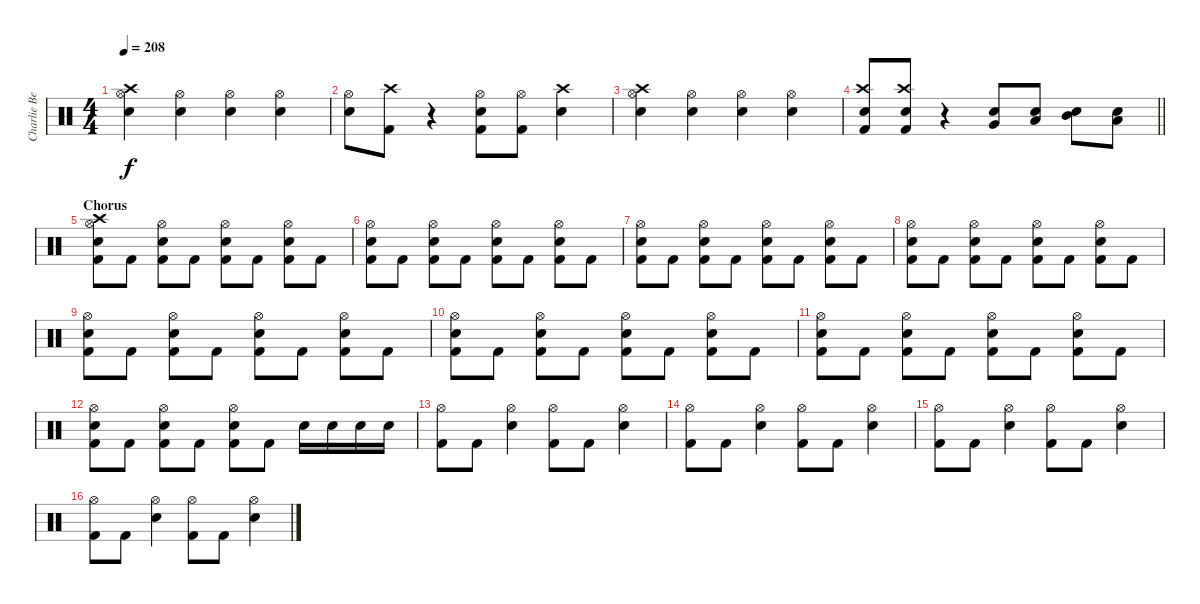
\track ("Charlie Benate" "Charlie Be") {instrument percussion}
\staff {score}
\articulation defaults
\ts (4 4)
\tempo 208
\clef neutral
\ks c
("Hi-Hat (open)" "Electric Snare (hit)" "Crash high (hit)").4{dy f} ("Hi-Hat (open)" "Electric Snare (hit)").4 ("Hi-Hat (open)" "Electric Snare (hit)").4 ("Hi-Hat (open)" "Electric Snare (hit)").4 |
("Hi-Hat (open)" "Electric Snare (hit)").8 ("Crash high (hit)" "Kick (hit) 2").8 r.4 ("Hi-Hat (open)" "Electric Snare (hit)" "Kick (hit) 2").8 ("Hi-Hat (open)" "Kick (hit) 2").8 ("Crash high (hit)" "Electric Snare (hit)").4 |
("Hi-Hat (open)" "Electric Snare (hit)" "Crash high (hit)").4 ("Hi-Hat (open)" "Electric Snare (hit)").4 ("Hi-Hat (open)" "Electric Snare (hit)").4 ("Hi-Hat (open)" "Electric Snare (hit)").4 |
\barLineRight lightlight
("Crash high (hit)" "Electric Snare (hit)" "Kick (hit) 2").8 ("Crash high (hit)" "Electric Snare (hit)" "Kick (hit) 2").8 r.4 ("Very Low Tom (hit)" "Electric Snare (hit)").8 ("Low Tom (hit)" "Electric Snare (hit)").8 ("Mid Tom (hit)" "Electric Snare (hit)").8 ("Low Floor Tom (hit)" "Electric Snare (hit)").8 |
\section ("" "Chorus")
("Hi-Hat (open)" "Electric Snare (hit)" "Kick (hit) 2" "Crash high (hit)").8 "Kick (hit) 2".8 ("Hi-Hat (open)" "Electric Snare (hit)" "Kick (hit) 2").8 "Kick (hit) 2".8 ("Hi-Hat (open)" "Electric Snare (hit)" "Kick (hit) 2").8 "Kick (hit) 2".8 ("Hi-Hat (open)" "Electric Snare (hit)" "Kick (hit) 2").8 "Kick (hit) 2".8 |
("Hi-Hat (open)" "Electric Snare (hit)" "Kick (hit) 2").8 "Kick (hit) 2".8 ("Hi-Hat (open)" "Electric Snare (hit)" "Kick (hit) 2").8 "Kick (hit) 2".8 ("Hi-Hat (open)" "Electric Snare (hit)" "Kick (hit) 2").8 "Kick (hit) 2".8 ("Hi-Hat (open)" "Electric Snare (hit)" "Kick (hit) 2").8 "Kick (hit) 2".8 |
("Hi-Hat (open)" "Electric Snare (hit)" "Kick (hit) 2").8 "Kick (hit) 2".8 ("Hi-Hat (open)" "Electric Snare (hit)" "Kick (hit) 2").8 "Kick (hit) 2".8 ("Hi-Hat (open)" "Electric Snare (hit)" "Kick (hit) 2").8 "Kick (hit) 2".8 ("Hi-Hat (open)" "Electric Snare (hit)" "Kick (hit) 2").8 "Kick (hit) 2".8 |
("Hi-Hat (open)" "Electric Snare (hit)" "Kick (hit) 2").8 "Kick (hit) 2".8 ("Hi-Hat (open)" "Electric Snare (hit)" "Kick (hit) 2").8 "Kick (hit) 2".8 ("Hi-Hat (open)" "Electric Snare (hit)" "Kick (hit) 2").8 "Kick (hit) 2".8 ("Hi-Hat (open)" "Electric Snare (hit)" "Kick (hit) 2").8 "Kick (hit) 2".8 |
("Hi-Hat (open)" "Electric Snare (hit)" "Kick (hit) 2").8 "Kick (hit) 2".8 ("Hi-Hat (open)" "Electric Snare (hit)" "Kick (hit) 2").8 "Kick (hit) 2".8 ("Hi-Hat (open)" "Electric Snare (hit)" "Kick (hit) 2").8 "Kick (hit) 2".8 ("Hi-Hat (open)" "Electric Snare (hit)" "Kick (hit) 2").8 "Kick (hit) 2".8 |
("Hi-Hat (open)" "Electric Snare (hit)" "Kick (hit) 2").8 "Kick (hit) 2".8 ("Hi-Hat (open)" "Electric Snare (hit)" "Kick (hit) 2").8 "Kick (hit) 2".8 ("Hi-Hat (open)" "Electric Snare (hit)" "Kick (hit) 2").8 "Kick (hit) 2".8 ("Hi-Hat (open)" "Electric Snare (hit)" "Kick (hit) 2").8 "Kick (hit) 2".8 |
("Hi-Hat (open)" "Electric Snare (hit)" "Kick (hit) 2").8 "Kick (hit) 2".8 ("Hi-Hat (open)" "Electric Snare (hit)" "Kick (hit) 2").8 "Kick (hit) 2".8 ("Hi-Hat (open)" "Electric Snare (hit)" "Kick (hit) 2").8 "Kick (hit) 2".8 ("Hi-Hat (open)" "Electric Snare (hit)" "Kick (hit) 2").8 "Kick (hit) 2".8 |
("Hi-Hat (open)" "Electric Snare (hit)" "Kick (hit) 2").8 "Kick (hit) 2".8 ("Hi-Hat (open)" "Electric Snare (hit)" "Kick (hit) 2").8 "Kick (hit) 2".8 ("Hi-Hat (open)" "Electric Snare (hit)" "Kick (hit) 2").8 "Kick (hit) 2".8 "Electric Snare (hit)".16 "Electric Snare (hit)".16 "Electric Snare (hit)".16 "Electric Snare (hit)".16 |
("Hi-Hat (open)" "Kick (hit) 2").8 "Kick (hit) 2".8 ("Hi-Hat (open)" "Electric Snare (hit)").4 ("Hi-Hat (open)" "Kick (hit) 2").8 "Kick (hit) 2".8 ("Hi-Hat (open)" "Electric Snare (hit)").4 |
("Hi-Hat (open)" "Kick (hit) 2").8 "Kick (hit) 2".8 ("Hi-Hat (open)" "Electric Snare (hit)").4 ("Hi-Hat (open)" "Kick (hit) 2").8 "Kick (hit) 2".8 ("Hi-Hat (open)" "Electric Snare (hit)").4 |
("Hi-Hat (open)" "Kick (hit) 2").8 "Kick (hit) 2".8 ("Hi-Hat (open)" "Electric Snare (hit)").4 ("Hi-Hat (open)" "Kick (hit) 2").8 "Kick (hit) 2".8 ("Hi-Hat (open)" "Electric Snare (hit)").4 |
("Hi-Hat (open)" "Kick (hit) 2").8 "Kick (hit) 2".8 ("Hi-Hat (open)" "Electric Snare (hit)").4 ("Hi-Hat (open)" "Kick (hit) 2").8 "Kick (hit) 2".8 ("Hi-Hat (open)" "Electric Snare (hit)").4
